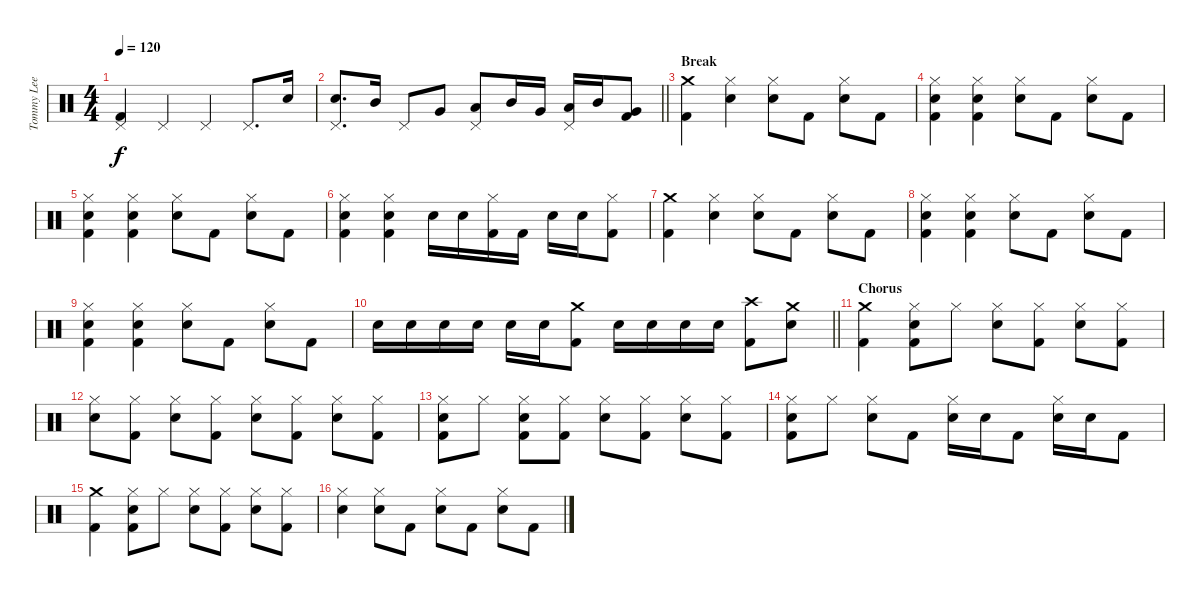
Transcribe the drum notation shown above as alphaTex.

\track ("Tommy Lee - Drums" "Tommy Lee ") {instrument percussion}
\staff {score}
\articulation defaults
\ts (4 4)
\tempo 120
\clef neutral
\ks c
("Pedal Hi-Hat (hit)" "Kick (hit) 2").4{dy f} "Pedal Hi-Hat (hit)".4 "Pedal Hi-Hat (hit)".4 "Pedal Hi-Hat (hit)".8{d} "Snare (hit) 2".16 |
\barLineRight lightlight
("Snare (hit) 2" "Pedal Hi-Hat (hit)").8{d} "Mid Tom (hit)".16 "Pedal Hi-Hat (hit)".8 "Very Low Tom (hit)".8 ("Low Tom (hit)" "Pedal Hi-Hat (hit)").8 "Mid Tom (hit)".16 "Very Low Tom (hit)".16 ("Low Tom (hit)" "Pedal Hi-Hat (hit)").16 "Mid Tom (hit)".16 ("Very Low Tom (hit)" "Kick (hit) 2").8 |
\section ("" "Break")
("Crash medium (hit)" "Kick (hit) 2").4 ("Hi-Hat (closed)" "Snare (hit) 2").4 ("Hi-Hat (closed)" "Snare (hit) 2").8 "Kick (hit) 2".8 ("Hi-Hat (closed)" "Snare (hit) 2").8 "Kick (hit) 2".8 |
("Hi-Hat (closed)" "Snare (hit) 2" "Kick (hit) 2").4 ("Hi-Hat (closed)" "Snare (hit) 2" "Kick (hit) 2").4 ("Hi-Hat (closed)" "Snare (hit) 2").8 "Kick (hit) 2".8 ("Hi-Hat (closed)" "Snare (hit) 2").8 "Kick (hit) 2".8 |
("Hi-Hat (closed)" "Snare (hit) 2" "Kick (hit) 2").4 ("Hi-Hat (closed)" "Snare (hit) 2" "Kick (hit) 2").4 ("Hi-Hat (closed)" "Snare (hit) 2").8 "Kick (hit) 2".8 ("Hi-Hat (closed)" "Snare (hit) 2").8 "Kick (hit) 2".8 |
("Hi-Hat (closed)" "Snare (hit) 2" "Kick (hit) 2").4 ("Hi-Hat (closed)" "Snare (hit) 2" "Kick (hit) 2").4 "Snare (hit) 2".16 "Snare (hit) 2".16 ("Hi-Hat (closed)" "Kick (hit) 2").16 "Kick (hit) 2".16 "Snare (hit) 2".16 "Snare (hit) 2".16 ("Hi-Hat (closed)" "Kick (hit) 2").8 |
("Crash medium (hit)" "Kick (hit) 2").4 ("Hi-Hat (closed)" "Snare (hit) 2").4 ("Hi-Hat (closed)" "Snare (hit) 2").8 "Kick (hit) 2".8 ("Hi-Hat (closed)" "Snare (hit) 2").8 "Kick (hit) 2".8 |
("Hi-Hat (closed)" "Snare (hit) 2" "Kick (hit) 2").4 ("Hi-Hat (closed)" "Snare (hit) 2" "Kick (hit) 2").4 ("Hi-Hat (closed)" "Snare (hit) 2").8 "Kick (hit) 2".8 ("Hi-Hat (closed)" "Snare (hit) 2").8 "Kick (hit) 2".8 |
("Hi-Hat (closed)" "Snare (hit) 2" "Kick (hit) 2").4 ("Hi-Hat (closed)" "Snare (hit) 2" "Kick (hit) 2").4 ("Hi-Hat (closed)" "Snare (hit) 2").8 "Kick (hit) 2".8 ("Hi-Hat (closed)" "Snare (hit) 2").8 "Kick (hit) 2".8 |
\barLineRight lightlight "Snare (hit) 2".16 "Snare (hit) 2".16 "Snare (hit) 2".16 "Snare (hit) 2".16 "Snare (hit) 2".16 "Snare (hit) 2".16
("Crash medium (hit)" "Kick (hit) 2").8 "Snare (hit) 2".16 "Snare (hit) 2".16 "Snare (hit) 2".16 "Snare (hit) 2".16 ("Crash high (hit)" "Kick (hit) 2").8 ("Crash medium (hit)" "Snare (hit) 2").8 |
\section ("" "Chorus")
("Crash medium (hit)" "Kick (hit) 2").4 ("Hi-Hat (closed)" "Snare (hit) 2" "Kick (hit) 2").8 "Hi-Hat (closed)".8 ("Hi-Hat (closed)" "Snare (hit) 2").8 ("Hi-Hat (closed)" "Kick (hit) 2").8 ("Hi-Hat (closed)" "Snare (hit) 2").8 ("Hi-Hat (closed)" "Kick (hit) 2").8 |
("Hi-Hat (closed)" "Snare (hit) 2").8 ("Hi-Hat (closed)" "Kick (hit) 2").8 ("Hi-Hat (closed)" "Snare (hit) 2").8 ("Hi-Hat (closed)" "Kick (hit) 2").8 ("Hi-Hat (closed)" "Snare (hit) 2").8 ("Hi-Hat (closed)" "Kick (hit) 2").8 ("Hi-Hat (closed)" "Snare (hit) 2").8 ("Hi-Hat (closed)" "Kick (hit) 2").8 |
("Hi-Hat (closed)" "Snare (hit) 2" "Kick (hit) 2").8 "Hi-Hat (closed)".8 ("Hi-Hat (closed)" "Snare (hit) 2" "Kick (hit) 2").8 ("Hi-Hat (closed)" "Kick (hit) 2").8 ("Hi-Hat (closed)" "Snare (hit) 2").8 ("Hi-Hat (closed)" "Kick (hit) 2").8 ("Hi-Hat (closed)" "Snare (hit) 2").8 ("Hi-Hat (closed)" "Kick (hit) 2").8 |
("Hi-Hat (closed)" "Snare (hit) 2" "Kick (hit) 2").8 "Hi-Hat (closed)".8 ("Hi-Hat (closed)" "Snare (hit) 2").8 "Kick (hit) 2".8 ("Hi-Hat (closed)" "Snare (hit) 2").16 "Snare (hit) 2".16 "Kick (hit) 2".8 ("Hi-Hat (closed)" "Snare (hit) 2").16 "Snare (hit) 2".16 "Kick (hit) 2".8 |
("Crash medium (hit)" "Kick (hit) 2").4 ("Hi-Hat (closed)" "Snare (hit) 2" "Kick (hit) 2").8 "Hi-Hat (closed)".8 ("Hi-Hat (closed)" "Snare (hit) 2").8 ("Hi-Hat (closed)" "Kick (hit) 2").8 ("Hi-Hat (closed)" "Snare (hit) 2").8 ("Hi-Hat (closed)" "Kick (hit) 2").8 |
("Hi-Hat (closed)" "Snare (hit) 2").4 ("Hi-Hat (closed)" "Snare (hit) 2").8 "Kick (hit) 2".8 ("Hi-Hat (closed)" "Snare (hit) 2").8 "Kick (hit) 2".8 ("Hi-Hat (closed)" "Snare (hit) 2").8 "Kick (hit) 2".8
